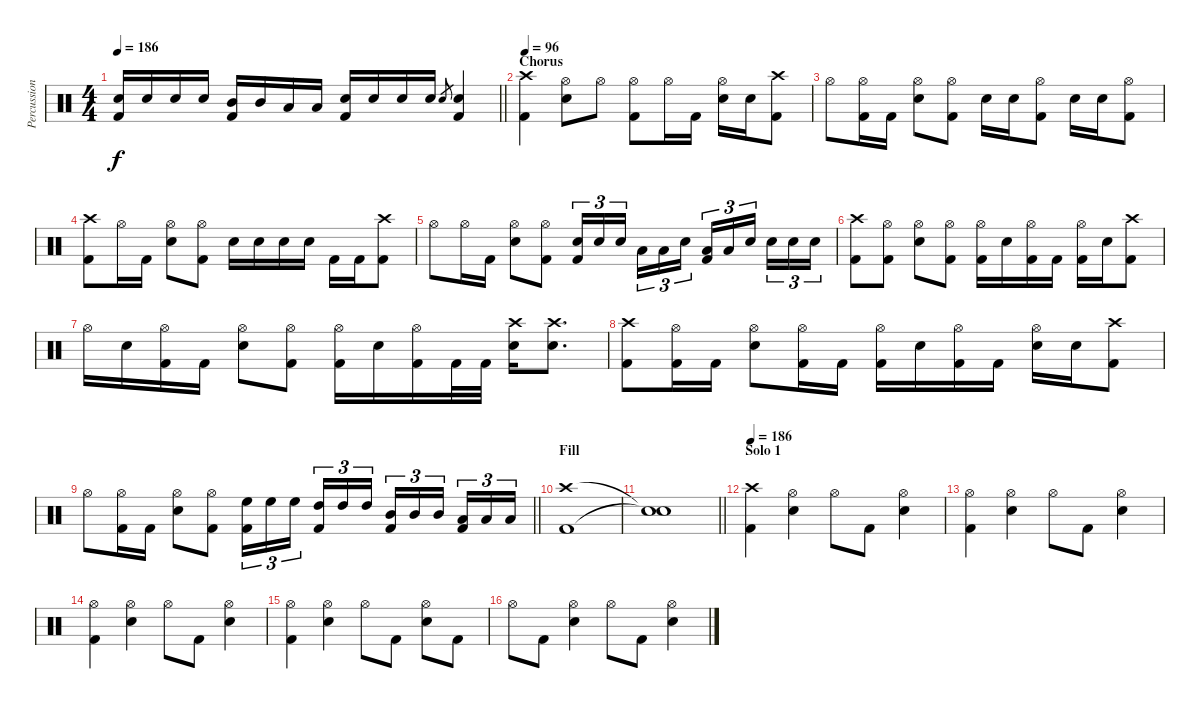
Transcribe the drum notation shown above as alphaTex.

\track ("Percussion" "Percussion") {instrument percussion}
\staff {score}
\articulation defaults
\ts (4 4)
\tempo 186
\clef neutral
\barLineRight lightlight
\ks c
("Snare (hit) 2" "Kick (hit) 2").16{dy f} "Snare (hit) 2".16 "Snare (hit) 2".16 "Snare (hit) 2".16 ("Mid Tom (hit)" "Kick (hit) 2").16 "Mid Tom (hit)".16 "Low Tom (hit)".16 "Low Tom (hit)".16 ("Snare (hit) 2" "Kick (hit) 2").16 "Snare (hit) 2".16 "Snare (hit) 2".16 "Snare (hit) 2".16 "Snare (hit) 2".8{gr} ("Snare (hit) 2" "Kick (hit) 2").4 |
\section ("" "Chorus")
\tempo 96
("Crash high (hit)" "Kick (hit) 2").4 ("Hi-Hat (open)" "Snare (hit) 2").8 "Hi-Hat (open)".8 ("Hi-Hat (open)" "Kick (hit) 2").8 "Hi-Hat (open)".16 "Kick (hit) 2".16 ("Hi-Hat (open)" "Snare (hit) 2").16 "Snare (hit) 2".16 ("Crash high (hit)" "Kick (hit) 2").8 |
"Hi-Hat (open)".8 ("Hi-Hat (open)" "Kick (hit) 2").16 "Kick (hit) 2".16 ("Hi-Hat (open)" "Snare (hit) 2").8 ("Hi-Hat (open)" "Kick (hit) 2").8 "Snare (hit) 2".16 "Snare (hit) 2".16 ("Hi-Hat (open)" "Kick (hit) 2").8 "Snare (hit) 2".16 "Snare (hit) 2".16 ("Hi-Hat (open)" "Kick (hit) 2").8 |
("Crash high (hit)" "Kick (hit) 2").8 "Hi-Hat (open)".16 "Kick (hit) 2".16 ("Hi-Hat (open)" "Snare (hit) 2").8 ("Hi-Hat (open)" "Kick (hit) 2").8 "Snare (hit) 2".16 "Snare (hit) 2".16 "Snare (hit) 2".16 "Snare (hit) 2".16 "Kick (hit) 2".16 "Kick (hit) 2".16 ("Crash high (hit)" "Kick (hit) 2").8 |
"Hi-Hat (open)".8 "Hi-Hat (open)".16 "Kick (hit) 2".16 ("Hi-Hat (open)" "Snare (hit) 2").8 ("Hi-Hat (open)" "Kick (hit) 2").8 ("Snare (hit) 2" "Kick (hit) 2").16{tu (3 2)} "Snare (hit) 2".16{tu (3 2)} "Snare (hit) 2".16{tu (3 2)} "Low Tom (hit)".16{tu (3 2)} "Low Tom (hit)".16{tu (3 2)} "Snare (hit) 2".16{tu (3 2)} ("Low Tom (hit)" "Kick (hit) 2").16{tu (3 2)} "Low Tom (hit)".16{tu (3 2)} "Snare (hit) 2".16{tu (3 2)} "Snare (hit) 2".16{tu (3 2)} "Snare (hit) 2".16{tu (3 2)} "Snare (hit) 2".16{tu (3 2)} |
("Crash high (hit)" "Kick (hit) 2").8 ("Hi-Hat (open)" "Kick (hit) 2").8 ("Hi-Hat (open)" "Snare (hit) 2").8 ("Hi-Hat (open)" "Kick (hit) 2").8 ("Hi-Hat (open)" "Kick (hit) 2").16 "Snare (hit) 2".16 ("Hi-Hat (open)" "Kick (hit) 2").16 "Kick (hit) 2".16 ("Hi-Hat (open)" "Kick (hit) 2").16 "Snare (hit) 2".16 ("Crash high (hit)" "Kick (hit) 2").8 |
"Hi-Hat (open)".16 "Snare (hit) 2".16 ("Hi-Hat (open)" "Kick (hit) 2").16 "Kick (hit) 2".16 ("Hi-Hat (open)" "Snare (hit) 2").8 ("Hi-Hat (open)" "Kick (hit) 2").8 ("Hi-Hat (open)" "Kick (hit) 2").16 "Snare (hit) 2".16 ("Hi-Hat (open)" "Kick (hit) 2").16 "Kick (hit) 2".32 "Kick (hit) 2".32 ("Crash high (hit)" "Snare (hit) 2").16 ("Crash high (hit)" "Snare (hit) 2").8{d} |
("Crash high (hit)" "Kick (hit) 2").8 ("Hi-Hat (open)" "Kick (hit) 2").16 "Kick (hit) 2".16 ("Hi-Hat (open)" "Snare (hit) 2").8 ("Hi-Hat (open)" "Kick (hit) 2").16 "Kick (hit) 2".16 ("Hi-Hat (open)" "Kick (hit) 2").16 "Snare (hit) 2".16 ("Hi-Hat (open)" "Kick (hit) 2").16 "Kick (hit) 2".16 ("Hi-Hat (open)" "Snare (hit) 2").16 "Snare (hit) 2".16 ("Crash high (hit)" "Kick (hit) 2").8 |
\barLineRight lightlight "Hi-Hat (open)".8
("Hi-Hat (open)" "Kick (hit) 2").16 "Kick (hit) 2".16 ("Hi-Hat (open)" "Snare (hit) 2").8 ("Hi-Hat (open)" "Kick (hit) 2").8 ("High Floor Tom (hit)" "Kick (hit) 2").16{tu (3 2)} "High Floor Tom (hit)".16{tu (3 2)} "High Floor Tom (hit)".16{tu (3 2)} ("High Tom (hit)" "Kick (hit) 2").16{tu (3 2)} "High Tom (hit)".16{tu (3 2)} "High Tom (hit)".16{tu (3 2)} ("Mid Tom (hit)" "Kick (hit) 2").16{tu (3 2)} "Mid Tom (hit)".16{tu (3 2)} "Mid Tom (hit)".16{tu (3 2)} ("Low Tom (hit)" "Kick (hit) 2").16{tu (3 2)} "Low Tom (hit)".16{tu (3 2)} "Low Tom (hit)".16{tu (3 2)} |
\section ("" "Fill")
("Crash high (hit)" "Kick (hit) 2").1 |
\barLineRight lightlight
("Snare (hit)"{t} "Snare (hit)"{t}).1 |
\section ("" "Solo 1")
\tempo 186
("Crash high (hit)" "Kick (hit) 2").4 ("Hi-Hat (open)" "Snare (hit) 2").4 "Hi-Hat (open)".8 "Kick (hit) 2".8 ("Hi-Hat (open)" "Snare (hit) 2").4 |
("Hi-Hat (open)" "Kick (hit) 2").4 ("Hi-Hat (open)" "Snare (hit) 2").4 "Hi-Hat (open)".8 "Kick (hit) 2".8 ("Hi-Hat (open)" "Snare (hit) 2").4 |
("Hi-Hat (open)" "Kick (hit) 2").4 ("Hi-Hat (open)" "Snare (hit) 2").4 "Hi-Hat (open)".8 "Kick (hit) 2".8 ("Hi-Hat (open)" "Snare (hit) 2").4 |
("Hi-Hat (open)" "Kick (hit) 2").4 ("Hi-Hat (open)" "Snare (hit) 2").4 "Hi-Hat (open)".8 "Kick (hit) 2".8 ("Hi-Hat (open)" "Snare (hit) 2").8 "Kick (hit) 2".8 |
"Hi-Hat (open)".8 "Kick (hit) 2".8 ("Hi-Hat (open)" "Snare (hit) 2").4 "Hi-Hat (open)".8 "Kick (hit) 2".8 ("Hi-Hat (open)" "Snare (hit) 2").4
